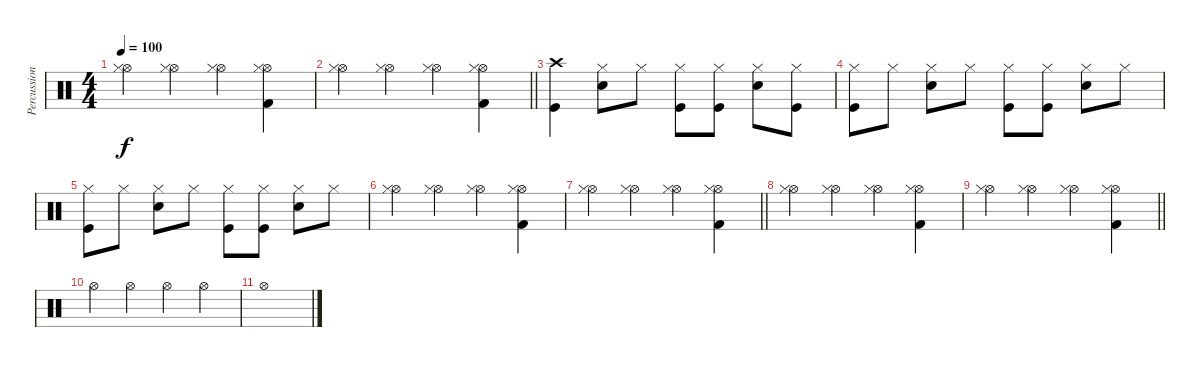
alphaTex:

\track ("Percussioni" "Percussion") {instrument percussion}
\staff {score}
\articulation defaults
\ts (4 4)
\tempo 100
\clef neutral
\ks c
("Hi-Hat (open)" "Hi-Hat (closed)").4{dy f} ("Hi-Hat (open)" "Hi-Hat (closed)").4 ("Hi-Hat (open)" "Hi-Hat (closed)").4 ("Hi-Hat (open)" "Hi-Hat (closed)" "Kick (hit) 2").4 |
\barLineRight lightlight
("Hi-Hat (open)" "Hi-Hat (closed)").4 ("Hi-Hat (open)" "Hi-Hat (closed)").4 ("Hi-Hat (open)" "Hi-Hat (closed)").4 ("Hi-Hat (open)" "Hi-Hat (closed)" "Kick (hit) 2").4 |
("Crash high (hit)" "Kick (hit)").4 ("Hi-Hat (closed)" "Snare (hit) 2").8 "Hi-Hat (closed)".8 ("Hi-Hat (closed)" "Kick (hit)").8 ("Hi-Hat (closed)" "Kick (hit)").8 ("Hi-Hat (closed)" "Snare (hit) 2").8 ("Hi-Hat (closed)" "Kick (hit)").8 |
("Hi-Hat (closed)" "Kick (hit)").8 "Hi-Hat (closed)".8 ("Hi-Hat (closed)" "Snare (hit) 2").8 "Hi-Hat (closed)".8 ("Hi-Hat (closed)" "Kick (hit)").8 ("Hi-Hat (closed)" "Kick (hit)").8 ("Hi-Hat (closed)" "Snare (hit) 2").8 "Hi-Hat (closed)".8 |
("Hi-Hat (closed)" "Kick (hit)").8 "Hi-Hat (closed)".8 ("Hi-Hat (closed)" "Snare (hit) 2").8 "Hi-Hat (closed)".8 ("Hi-Hat (closed)" "Kick (hit)").8 ("Hi-Hat (closed)" "Kick (hit)").8 ("Hi-Hat (closed)" "Snare (hit) 2").8 "Hi-Hat (closed)".8 |
("Hi-Hat (open)" "Hi-Hat (closed)").4 ("Hi-Hat (open)" "Hi-Hat (closed)").4 ("Hi-Hat (open)" "Hi-Hat (closed)").4 ("Hi-Hat (open)" "Hi-Hat (closed)" "Kick (hit) 2").4 |
\barLineRight lightlight
("Hi-Hat (open)" "Hi-Hat (closed)").4 ("Hi-Hat (open)" "Hi-Hat (closed)").4 ("Hi-Hat (open)" "Hi-Hat (closed)").4 ("Hi-Hat (open)" "Hi-Hat (closed)" "Kick (hit) 2").4 |
("Hi-Hat (open)" "Hi-Hat (closed)").4 ("Hi-Hat (open)" "Hi-Hat (closed)").4 ("Hi-Hat (open)" "Hi-Hat (closed)").4 ("Hi-Hat (open)" "Hi-Hat (closed)" "Kick (hit) 2").4 |
\barLineRight lightlight
("Hi-Hat (open)" "Hi-Hat (closed)").4 ("Hi-Hat (open)" "Hi-Hat (closed)").4 ("Hi-Hat (open)" "Hi-Hat (closed)").4 ("Hi-Hat (open)" "Hi-Hat (closed)" "Kick (hit) 2").4 |
"Hi-Hat (open)".4 "Hi-Hat (open)".4 "Hi-Hat (open)".4 "Hi-Hat (open)".4 |
"Hi-Hat (open)".1
